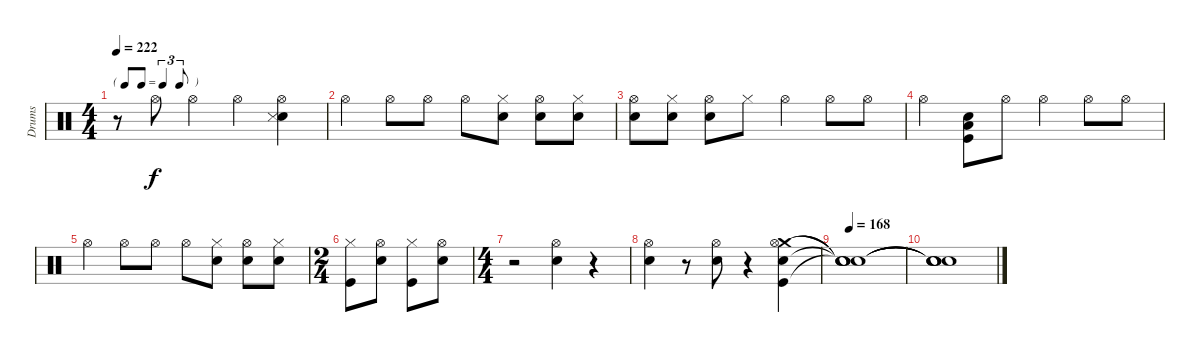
\track ("Drums" "Drums") {instrument percussion}
\staff {score}
\articulation defaults
\ts (4 4)
\tf triplet8th
\tempo 222
\clef neutral
\ks c
r.8{dy f} "Hi-Hat (open)".8 "Hi-Hat (open)".4 "Hi-Hat (open)".4 ("Hi-Hat (open)" "Snare (hit) 2" "Metronome (hit)").4 |
"Hi-Hat (open)".4 "Hi-Hat (open)".8 "Hi-Hat (open)".8 "Hi-Hat (open)".8 ("Hi-Hat (closed)" "Snare (hit) 2").8 ("Snare (hit) 2" "Hi-Hat (open)").8 ("Hi-Hat (closed)" "Snare (hit) 2").8 |
("Snare (hit) 2" "Hi-Hat (open)").8 ("Snare (hit) 2" "Hi-Hat (closed)").8 ("Snare (hit) 2" "Hi-Hat (open)").8 "Hi-Hat (closed)".8 "Hi-Hat (open)".4 "Hi-Hat (open)".8 "Hi-Hat (open)".8 |
"Hi-Hat (open)".4 ("Kick (hit)" "Snare (hit) 2" "Low Floor Tom (hit)").8 "Hi-Hat (open)".8 "Hi-Hat (open)".4 "Hi-Hat (open)".8 "Hi-Hat (open)".8 |
"Hi-Hat (open)".4 "Hi-Hat (open)".8 "Hi-Hat (open)".8 "Hi-Hat (open)".8 ("Hi-Hat (closed)" "Snare (hit) 2").8 ("Snare (hit) 2" "Hi-Hat (open)").8 ("Hi-Hat (closed)" "Snare (hit) 2").8 |
\ts (2 4)
("Hi-Hat (closed)" "Kick (hit)").8 ("Snare (hit) 2" "Hi-Hat (open)").8 ("Hi-Hat (closed)" "Kick (hit)").8 ("Snare (hit) 2" "Hi-Hat (open)").8 |
\ts (4 4)
r.2 ("Hi-Hat (open)" "Snare (hit) 2").4 r.4 |
("Snare (hit) 2" "Hi-Hat (open)").4 r.8 ("Snare (hit) 2" "Hi-Hat (open)").8 r.4 ("Crash medium (hit)" "Snare (hit) 2" "Hi-Hat (open)" "Kick (hit)").4 |
\tempo 168
("Snare (hit)"{t} "Snare (hit)"{t} "Snare (hit)"{t} "Snare (hit)"{t}).1 |
("Snare (hit)"{t} "Snare (hit)"{t} "Snare (hit)"{t} "Snare (hit)"{t}).1
